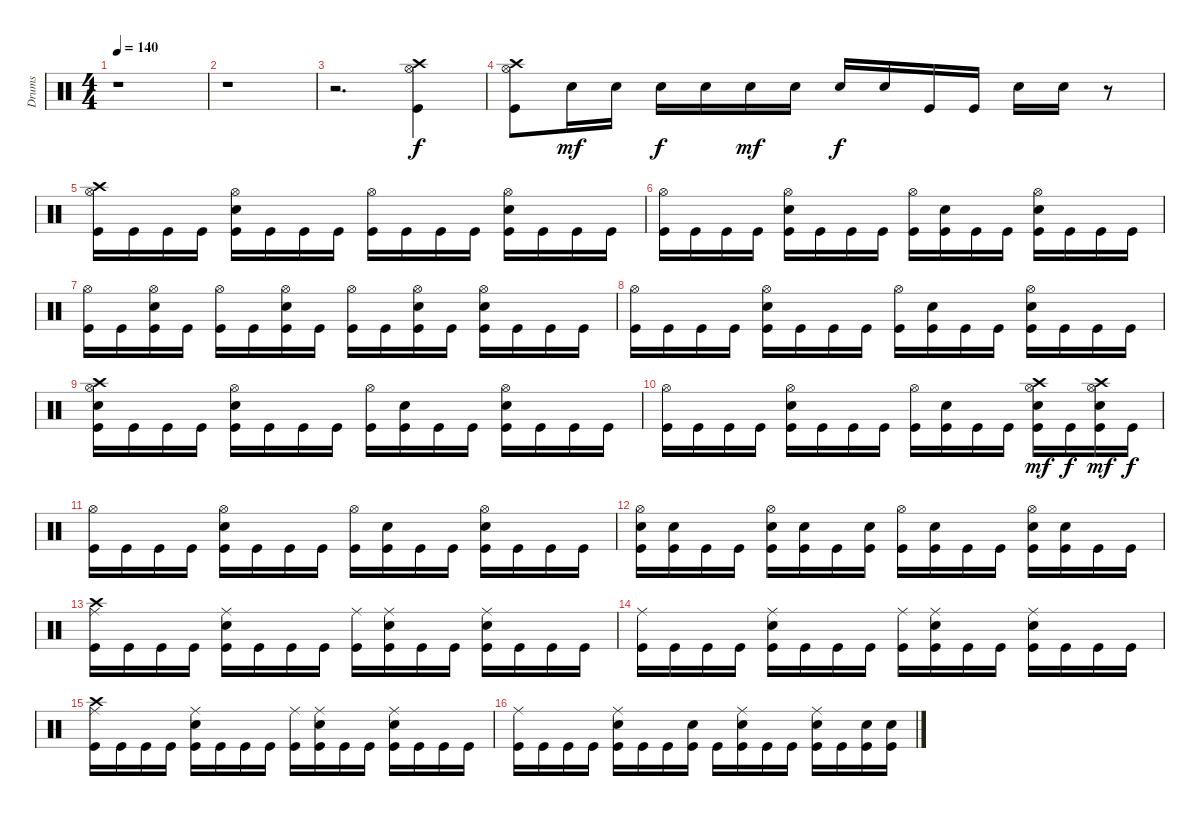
\track ("Drums" "Drums") {instrument percussion}
\staff {score}
\articulation defaults
\ts (4 4)
\tempo 140
\clef neutral
\ks c
r.1{dy mp} |
r.1 |
r.2{d} ("Hi-Hat (open)" "Crash high (hit)" "Kick (hit)").4{dy f} |
("Crash high (hit)" "Hi-Hat (open)" "Kick (hit)").8 "Electric Snare (hit)".16{dy mf} "Electric Snare (hit)".16 "Electric Snare (hit)".16{dy f} "Electric Snare (hit)".16 "Electric Snare (hit)".16{dy mf} "Electric Snare (hit)".16 "Electric Snare (hit)".16{dy f} "Electric Snare (hit)".16 "Kick (hit)".16 "Kick (hit)".16 "Electric Snare (hit)".16 "Electric Snare (hit)".16 r.8 |
("Crash high (hit)" "Hi-Hat (open)" "Kick (hit)").16 "Kick (hit)".16 "Kick (hit)".16 "Kick (hit)".16 ("Hi-Hat (open)" "Electric Snare (hit)" "Kick (hit)").16 "Kick (hit)".16 "Kick (hit)".16 "Kick (hit)".16 ("Hi-Hat (open)" "Kick (hit)").16 "Kick (hit)".16 "Kick (hit)".16 "Kick (hit)".16 ("Hi-Hat (open)" "Electric Snare (hit)" "Kick (hit)").16 "Kick (hit)".16 "Kick (hit)".16 "Kick (hit)".16 |
("Hi-Hat (open)" "Kick (hit)").16 "Kick (hit)".16 "Kick (hit)".16 "Kick (hit)".16 ("Hi-Hat (open)" "Electric Snare (hit)" "Kick (hit)").16 "Kick (hit)".16 "Kick (hit)".16 "Kick (hit)".16 ("Hi-Hat (open)" "Kick (hit)").16 ("Electric Snare (hit)" "Kick (hit)").16 "Kick (hit)".16 "Kick (hit)".16 ("Hi-Hat (open)" "Electric Snare (hit)" "Kick (hit)").16 "Kick (hit)".16 "Kick (hit)".16 "Kick (hit)".16 |
("Hi-Hat (open)" "Kick (hit)").16 "Kick (hit)".16 ("Hi-Hat (open)" "Electric Snare (hit)" "Kick (hit)").16 "Kick (hit)".16 ("Hi-Hat (open)" "Kick (hit)").16 "Kick (hit)".16 ("Hi-Hat (open)" "Electric Snare (hit)" "Kick (hit)").16 "Kick (hit)".16 ("Hi-Hat (open)" "Kick (hit)").16 "Kick (hit)".16 ("Hi-Hat (open)" "Electric Snare (hit)" "Kick (hit)").16 "Kick (hit)".16 ("Hi-Hat (open)" "Electric Snare (hit)" "Kick (hit)").16 "Kick (hit)".16 "Kick (hit)".16 "Kick (hit)".16 |
("Hi-Hat (open)" "Kick (hit)").16 "Kick (hit)".16 "Kick (hit)".16 "Kick (hit)".16 ("Hi-Hat (open)" "Electric Snare (hit)" "Kick (hit)").16 "Kick (hit)".16 "Kick (hit)".16 "Kick (hit)".16 ("Hi-Hat (open)" "Kick (hit)").16 ("Electric Snare (hit)" "Kick (hit)").16 "Kick (hit)".16 "Kick (hit)".16 ("Hi-Hat (open)" "Electric Snare (hit)" "Kick (hit)").16 "Kick (hit)".16 "Kick (hit)".16 "Kick (hit)".16 |
("Crash high (hit)" "Hi-Hat (open)" "Electric Snare (hit)" "Kick (hit)").16 "Kick (hit)".16 "Kick (hit)".16 "Kick (hit)".16 ("Hi-Hat (open)" "Electric Snare (hit)" "Kick (hit)").16 "Kick (hit)".16 "Kick (hit)".16 "Kick (hit)".16 ("Hi-Hat (open)" "Kick (hit)").16 ("Electric Snare (hit)" "Kick (hit)").16 "Kick (hit)".16 "Kick (hit)".16 ("Hi-Hat (open)" "Electric Snare (hit)" "Kick (hit)").16 "Kick (hit)".16 "Kick (hit)".16 "Kick (hit)".16 |
("Hi-Hat (open)" "Kick (hit)").16 "Kick (hit)".16 "Kick (hit)".16 "Kick (hit)".16 ("Hi-Hat (open)" "Electric Snare (hit)" "Kick (hit)").16 "Kick (hit)".16 "Kick (hit)".16 "Kick (hit)".16 ("Hi-Hat (open)" "Kick (hit)").16 ("Electric Snare (hit)" "Kick (hit)").16 "Kick (hit)".16 "Kick (hit)".16 ("Crash high (hit)" "Hi-Hat (open)" "Electric Snare (hit)" "Kick (hit)").16{dy mf} "Kick (hit)".16{dy f} ("Crash high (hit)" "Hi-Hat (open)" "Electric Snare (hit)" "Kick (hit)").16{dy mf} "Kick (hit)".16{dy f} |
("Hi-Hat (open)" "Kick (hit)").16 "Kick (hit)".16 "Kick (hit)".16 "Kick (hit)".16 ("Hi-Hat (open)" "Electric Snare (hit)" "Kick (hit)").16 "Kick (hit)".16 "Kick (hit)".16 "Kick (hit)".16 ("Hi-Hat (open)" "Kick (hit)").16 ("Electric Snare (hit)" "Kick (hit)").16 "Kick (hit)".16 "Kick (hit)".16 ("Hi-Hat (open)" "Electric Snare (hit)" "Kick (hit)").16 "Kick (hit)".16 "Kick (hit)".16 "Kick (hit)".16 |
("Hi-Hat (open)" "Electric Snare (hit)" "Kick (hit)").16 ("Electric Snare (hit)" "Kick (hit)").16 "Kick (hit)".16 "Kick (hit)".16 ("Hi-Hat (open)" "Electric Snare (hit)" "Kick (hit)").16 ("Electric Snare (hit)" "Kick (hit)").16 "Kick (hit)".16 ("Electric Snare (hit)" "Kick (hit)").16 ("Hi-Hat (open)" "Kick (hit)").16 ("Electric Snare (hit)" "Kick (hit)").16 "Kick (hit)".16 "Kick (hit)".16 ("Hi-Hat (open)" "Electric Snare (hit)" "Kick (hit)").16 ("Electric Snare (hit)" "Kick (hit)").16 "Kick (hit)".16 "Kick (hit)".16 |
("Crash high (hit)" "Ride (middle)" "Kick (hit)").16 "Kick (hit)".16 "Kick (hit)".16 "Kick (hit)".16 ("Ride (middle)" "Electric Snare (hit)" "Kick (hit)").16 "Kick (hit)".16 "Kick (hit)".16 "Kick (hit)".16 ("Ride (middle)" "Kick (hit)").16 ("Ride (middle)" "Electric Snare (hit)" "Kick (hit)").16 "Kick (hit)".16 "Kick (hit)".16 ("Ride (middle)" "Electric Snare (hit)" "Kick (hit)").16 "Kick (hit)".16 "Kick (hit)".16 "Kick (hit)".16 |
("Ride (middle)" "Kick (hit)").16 "Kick (hit)".16 "Kick (hit)".16 "Kick (hit)".16 ("Ride (middle)" "Electric Snare (hit)" "Kick (hit)").16 "Kick (hit)".16 "Kick (hit)".16 "Kick (hit)".16 ("Ride (middle)" "Kick (hit)").16 ("Ride (middle)" "Electric Snare (hit)" "Kick (hit)").16 "Kick (hit)".16 "Kick (hit)".16 ("Ride (middle)" "Electric Snare (hit)" "Kick (hit)").16 "Kick (hit)".16 "Kick (hit)".16 "Kick (hit)".16 |
("Crash high (hit)" "Ride (middle)" "Kick (hit)").16 "Kick (hit)".16 "Kick (hit)".16 "Kick (hit)".16 ("Ride (middle)" "Electric Snare (hit)" "Kick (hit)").16 "Kick (hit)".16 "Kick (hit)".16 "Kick (hit)".16 ("Ride (middle)" "Kick (hit)").16 ("Ride (middle)" "Electric Snare (hit)" "Kick (hit)").16 "Kick (hit)".16 "Kick (hit)".16 ("Ride (middle)" "Electric Snare (hit)" "Kick (hit)").16 "Kick (hit)".16 "Kick (hit)".16 "Kick (hit)".16 |
("Ride (middle)" "Kick (hit)").16 "Kick (hit)".16 "Kick (hit)".16 "Kick (hit)".16 ("Ride (middle)" "Electric Snare (hit)" "Kick (hit)").16 "Kick (hit)".16 "Kick (hit)".16 ("Electric Snare (hit)" "Kick (hit)").16 "Kick (hit)".16 ("Ride (middle)" "Electric Snare (hit)" "Kick (hit)").16 "Kick (hit)".16 "Kick (hit)".16 ("Ride (middle)" "Electric Snare (hit)" "Kick (hit)").16 "Kick (hit)".16 ("Electric Snare (hit)" "Kick (hit)").16 ("Electric Snare (hit)" "Kick (hit)").16
